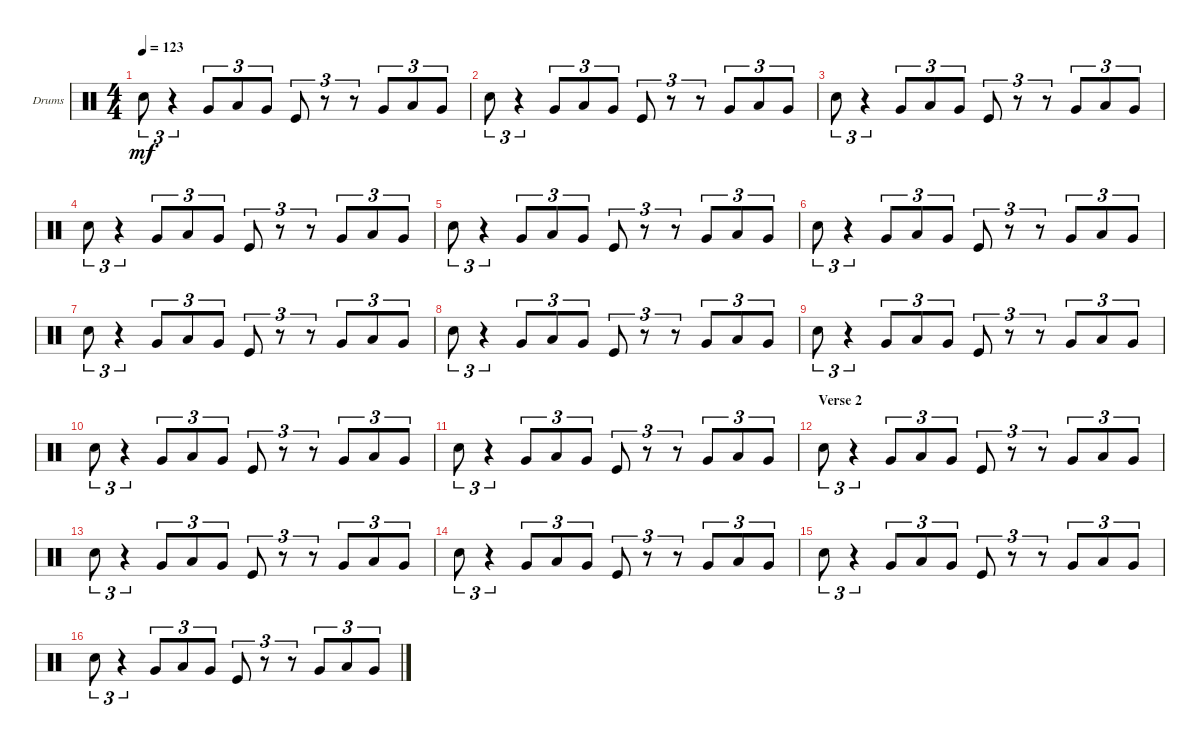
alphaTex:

\defaultSystemsLayout 4
\bracketExtendMode groupsimilarinstruments
\firstSystemTrackNameOrientation horizontal
\otherSystemsTrackNameOrientation horizontal
\track ("Drumkit" "Drums") {multiBarRest instrument percussion}
\staff {score}
\articulation defaults
\ts (4 4)
\tempo 123
\clef neutral
\ks c "Snare (hit) 2".8{tu (3 2) dy mf}
r.4{tu (3 2)} "Very Low Tom (hit)".8{tu (3 2)} "Low Tom (hit)".8{tu (3 2)} "Very Low Tom (hit)".8{tu (3 2)} "Kick (hit)".8{tu (3 2)} r.8{tu (3 2)} r.8{tu (3 2)} "Very Low Tom (hit)".8{tu (3 2)} "Low Tom (hit)".8{tu (3 2)} "Very Low Tom (hit)".8{tu (3 2)} |
"Snare (hit) 2".8{tu (3 2)} r.4{tu (3 2)} "Very Low Tom (hit)".8{tu (3 2)} "Low Tom (hit)".8{tu (3 2)} "Very Low Tom (hit)".8{tu (3 2)} "Kick (hit)".8{tu (3 2)} r.8{tu (3 2)} r.8{tu (3 2)} "Very Low Tom (hit)".8{tu (3 2)} "Low Tom (hit)".8{tu (3 2)} "Very Low Tom (hit)".8{tu (3 2)} |
"Snare (hit) 2".8{tu (3 2)} r.4{tu (3 2)} "Very Low Tom (hit)".8{tu (3 2)} "Low Tom (hit)".8{tu (3 2)} "Very Low Tom (hit)".8{tu (3 2)} "Kick (hit)".8{tu (3 2)} r.8{tu (3 2)} r.8{tu (3 2)} "Very Low Tom (hit)".8{tu (3 2)} "Low Tom (hit)".8{tu (3 2)} "Very Low Tom (hit)".8{tu (3 2)} |
"Snare (hit) 2".8{tu (3 2)} r.4{tu (3 2)} "Very Low Tom (hit)".8{tu (3 2)} "Low Tom (hit)".8{tu (3 2)} "Very Low Tom (hit)".8{tu (3 2)} "Kick (hit)".8{tu (3 2)} r.8{tu (3 2)} r.8{tu (3 2)} "Very Low Tom (hit)".8{tu (3 2)} "Low Tom (hit)".8{tu (3 2)} "Very Low Tom (hit)".8{tu (3 2)} |
"Snare (hit) 2".8{tu (3 2)} r.4{tu (3 2)} "Very Low Tom (hit)".8{tu (3 2)} "Low Tom (hit)".8{tu (3 2)} "Very Low Tom (hit)".8{tu (3 2)} "Kick (hit)".8{tu (3 2)} r.8{tu (3 2)} r.8{tu (3 2)} "Very Low Tom (hit)".8{tu (3 2)} "Low Tom (hit)".8{tu (3 2)} "Very Low Tom (hit)".8{tu (3 2)} |
"Snare (hit) 2".8{tu (3 2)} r.4{tu (3 2)} "Very Low Tom (hit)".8{tu (3 2)} "Low Tom (hit)".8{tu (3 2)} "Very Low Tom (hit)".8{tu (3 2)} "Kick (hit)".8{tu (3 2)} r.8{tu (3 2)} r.8{tu (3 2)} "Very Low Tom (hit)".8{tu (3 2)} "Low Tom (hit)".8{tu (3 2)} "Very Low Tom (hit)".8{tu (3 2)} |
"Snare (hit) 2".8{tu (3 2)} r.4{tu (3 2)} "Very Low Tom (hit)".8{tu (3 2)} "Low Tom (hit)".8{tu (3 2)} "Very Low Tom (hit)".8{tu (3 2)} "Kick (hit)".8{tu (3 2)} r.8{tu (3 2)} r.8{tu (3 2)} "Very Low Tom (hit)".8{tu (3 2)} "Low Tom (hit)".8{tu (3 2)} "Very Low Tom (hit)".8{tu (3 2)} |
"Snare (hit) 2".8{tu (3 2)} r.4{tu (3 2)} "Very Low Tom (hit)".8{tu (3 2)} "Low Tom (hit)".8{tu (3 2)} "Very Low Tom (hit)".8{tu (3 2)} "Kick (hit)".8{tu (3 2)} r.8{tu (3 2)} r.8{tu (3 2)} "Very Low Tom (hit)".8{tu (3 2)} "Low Tom (hit)".8{tu (3 2)} "Very Low Tom (hit)".8{tu (3 2)} |
"Snare (hit) 2".8{tu (3 2)} r.4{tu (3 2)} "Very Low Tom (hit)".8{tu (3 2)} "Low Tom (hit)".8{tu (3 2)} "Very Low Tom (hit)".8{tu (3 2)} "Kick (hit)".8{tu (3 2)} r.8{tu (3 2)} r.8{tu (3 2)} "Very Low Tom (hit)".8{tu (3 2)} "Low Tom (hit)".8{tu (3 2)} "Very Low Tom (hit)".8{tu (3 2)} |
"Snare (hit) 2".8{tu (3 2)} r.4{tu (3 2)} "Very Low Tom (hit)".8{tu (3 2)} "Low Tom (hit)".8{tu (3 2)} "Very Low Tom (hit)".8{tu (3 2)} "Kick (hit)".8{tu (3 2)} r.8{tu (3 2)} r.8{tu (3 2)} "Very Low Tom (hit)".8{tu (3 2)} "Low Tom (hit)".8{tu (3 2)} "Very Low Tom (hit)".8{tu (3 2)} |
"Snare (hit) 2".8{tu (3 2)} r.4{tu (3 2)} "Very Low Tom (hit)".8{tu (3 2)} "Low Tom (hit)".8{tu (3 2)} "Very Low Tom (hit)".8{tu (3 2)} "Kick (hit)".8{tu (3 2)} r.8{tu (3 2)} r.8{tu (3 2)} "Very Low Tom (hit)".8{tu (3 2)} "Low Tom (hit)".8{tu (3 2)} "Very Low Tom (hit)".8{tu (3 2)} |
\section ("" "Verse 2")
"Snare (hit) 2".8{tu (3 2)} r.4{tu (3 2)} "Very Low Tom (hit)".8{tu (3 2)} "Low Tom (hit)".8{tu (3 2)} "Very Low Tom (hit)".8{tu (3 2)} "Kick (hit)".8{tu (3 2)} r.8{tu (3 2)} r.8{tu (3 2)} "Very Low Tom (hit)".8{tu (3 2)} "Low Tom (hit)".8{tu (3 2)} "Very Low Tom (hit)".8{tu (3 2)} |
"Snare (hit) 2".8{tu (3 2)} r.4{tu (3 2)} "Very Low Tom (hit)".8{tu (3 2)} "Low Tom (hit)".8{tu (3 2)} "Very Low Tom (hit)".8{tu (3 2)} "Kick (hit)".8{tu (3 2)} r.8{tu (3 2)} r.8{tu (3 2)} "Very Low Tom (hit)".8{tu (3 2)} "Low Tom (hit)".8{tu (3 2)} "Very Low Tom (hit)".8{tu (3 2)} |
"Snare (hit) 2".8{tu (3 2)} r.4{tu (3 2)} "Very Low Tom (hit)".8{tu (3 2)} "Low Tom (hit)".8{tu (3 2)} "Very Low Tom (hit)".8{tu (3 2)} "Kick (hit)".8{tu (3 2)} r.8{tu (3 2)} r.8{tu (3 2)} "Very Low Tom (hit)".8{tu (3 2)} "Low Tom (hit)".8{tu (3 2)} "Very Low Tom (hit)".8{tu (3 2)} |
"Snare (hit) 2".8{tu (3 2)} r.4{tu (3 2)} "Very Low Tom (hit)".8{tu (3 2)} "Low Tom (hit)".8{tu (3 2)} "Very Low Tom (hit)".8{tu (3 2)} "Kick (hit)".8{tu (3 2)} r.8{tu (3 2)} r.8{tu (3 2)} "Very Low Tom (hit)".8{tu (3 2)} "Low Tom (hit)".8{tu (3 2)} "Very Low Tom (hit)".8{tu (3 2)} |
"Snare (hit) 2".8{tu (3 2)} r.4{tu (3 2)} "Very Low Tom (hit)".8{tu (3 2)} "Low Tom (hit)".8{tu (3 2)} "Very Low Tom (hit)".8{tu (3 2)} "Kick (hit)".8{tu (3 2)} r.8{tu (3 2)} r.8{tu (3 2)} "Very Low Tom (hit)".8{tu (3 2)} "Low Tom (hit)".8{tu (3 2)} "Very Low Tom (hit)".8{tu (3 2)}
